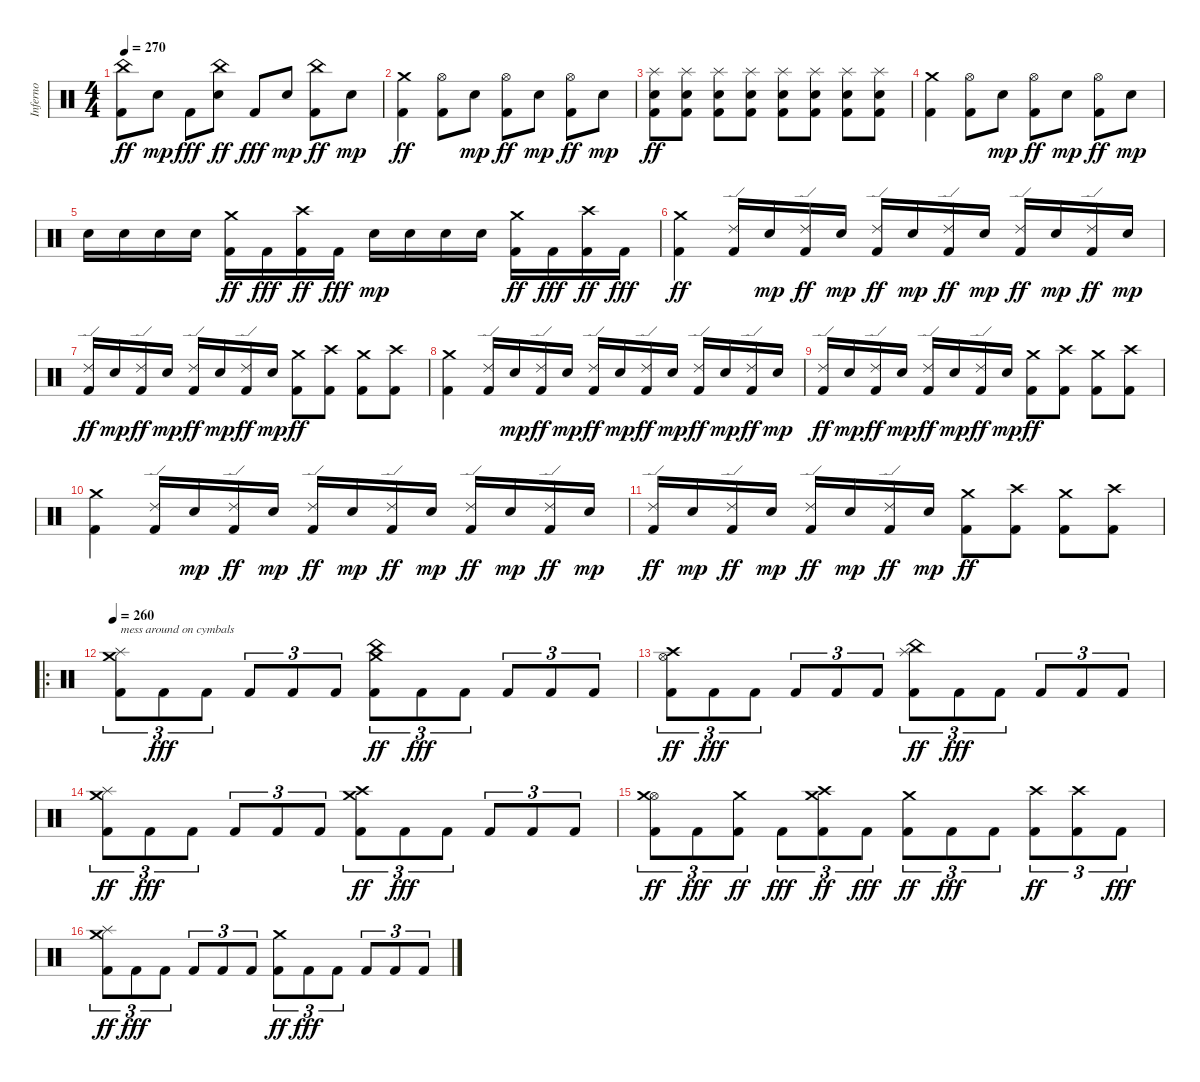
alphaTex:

\track ("Inferno" "Inferno") {instrument percussion}
\staff {score}
\articulation defaults
\ts (4 4)
\tempo 270
\clef neutral
\ks c
("Kick (hit) 2" "China (hit)").8{dy ff} "Electric Snare (hit)".8{dy mp} "Kick (hit) 2".8{dy fff} ("Electric Snare (hit)" "China (hit)").8{dy ff} "Kick (hit) 2".8{dy fff} "Electric Snare (hit)".8{dy mp} ("Kick (hit) 2" "China (hit)").8{dy ff} "Electric Snare (hit)".8{dy mp} |
("Kick (hit) 2" "Crash medium (hit)").4{dy ff} ("Kick (hit) 2" "Hi-Hat (open)").8 "Electric Snare (hit)".8{dy mp} ("Kick (hit) 2" "Hi-Hat (open)").8{dy ff} "Electric Snare (hit)".8{dy mp} ("Kick (hit) 2" "Hi-Hat (open)").8{dy ff} "Electric Snare (hit)".8{dy mp} |
("Kick (hit) 2" "Electric Snare (hit)" "Splash (hit)").8{dy ff} ("Kick (hit) 2" "Electric Snare (hit)" "Splash (hit)").8 ("Kick (hit) 2" "Electric Snare (hit)" "Splash (hit)").8 ("Kick (hit) 2" "Electric Snare (hit)" "Splash (hit)").8 ("Kick (hit) 2" "Electric Snare (hit)" "Splash (hit)").8 ("Kick (hit) 2" "Electric Snare (hit)" "Splash (hit)").8 ("Kick (hit) 2" "Electric Snare (hit)" "Splash (hit)").8 ("Kick (hit) 2" "Electric Snare (hit)" "Splash (hit)").8 |
("Kick (hit) 2" "Crash medium (hit)").4 ("Kick (hit) 2" "Hi-Hat (open)").8 "Electric Snare (hit)".8{dy mp} ("Kick (hit) 2" "Hi-Hat (open)").8{dy ff} "Electric Snare (hit)".8{dy mp} ("Kick (hit) 2" "Hi-Hat (open)").8{dy ff} "Electric Snare (hit)".8{dy mp} |
"Electric Snare (hit)".16 "Electric Snare (hit)".16 "Electric Snare (hit)".16 "Electric Snare (hit)".16 ("Kick (hit) 2" "Crash medium (hit)").16{dy ff} "Kick (hit) 2".16{dy fff} ("Kick (hit) 2" "Crash high (hit)").16{dy ff} "Kick (hit) 2".16{dy fff} "Electric Snare (hit)".16{dy mp} "Electric Snare (hit)".16 "Electric Snare (hit)".16 "Electric Snare (hit)".16 ("Kick (hit) 2" "Crash medium (hit)").16{dy ff} "Kick (hit) 2".16{dy fff} ("Kick (hit) 2" "Crash high (hit)").16{dy ff} "Kick (hit) 2".16{dy fff} |
("Kick (hit) 2" "Crash medium (hit)").4{dy ff} ("Kick (hit) 2" "Ride (edge) 2").16 "Electric Snare (hit)".16{dy mp} ("Kick (hit) 2" "Ride (edge) 2").16{dy ff} "Electric Snare (hit)".16{dy mp} ("Kick (hit) 2" "Ride (edge) 2").16{dy ff} "Electric Snare (hit)".16{dy mp} ("Kick (hit) 2" "Ride (edge) 2").16{dy ff} "Electric Snare (hit)".16{dy mp} ("Kick (hit) 2" "Ride (edge) 2").16{dy ff} "Electric Snare (hit)".16{dy mp} ("Kick (hit) 2" "Ride (edge) 2").16{dy ff} "Electric Snare (hit)".16{dy mp} |
("Kick (hit) 2" "Ride (edge) 2").16{dy ff} "Electric Snare (hit)".16{dy mp} ("Kick (hit) 2" "Ride (edge) 2").16{dy ff} "Electric Snare (hit)".16{dy mp} ("Kick (hit) 2" "Ride (edge) 2").16{dy ff} "Electric Snare (hit)".16{dy mp} ("Kick (hit) 2" "Ride (edge) 2").16{dy ff} "Electric Snare (hit)".16{dy mp} ("Kick (hit) 2" "Crash medium (hit)").8{dy ff} ("Kick (hit) 2" "Crash high (hit)").8 ("Kick (hit) 2" "Crash medium (hit)").8 ("Kick (hit) 2" "Crash high (hit)").8 |
("Kick (hit) 2" "Crash medium (hit)").4 ("Kick (hit) 2" "Ride (edge) 2").16 "Electric Snare (hit)".16{dy mp} ("Kick (hit) 2" "Ride (edge) 2").16{dy ff} "Electric Snare (hit)".16{dy mp} ("Kick (hit) 2" "Ride (edge) 2").16{dy ff} "Electric Snare (hit)".16{dy mp} ("Kick (hit) 2" "Ride (edge) 2").16{dy ff} "Electric Snare (hit)".16{dy mp} ("Kick (hit) 2" "Ride (edge) 2").16{dy ff} "Electric Snare (hit)".16{dy mp} ("Kick (hit) 2" "Ride (edge) 2").16{dy ff} "Electric Snare (hit)".16{dy mp} |
("Kick (hit) 2" "Ride (edge) 2").16{dy ff} "Electric Snare (hit)".16{dy mp} ("Kick (hit) 2" "Ride (edge) 2").16{dy ff} "Electric Snare (hit)".16{dy mp} ("Kick (hit) 2" "Ride (edge) 2").16{dy ff} "Electric Snare (hit)".16{dy mp} ("Kick (hit) 2" "Ride (edge) 2").16{dy ff} "Electric Snare (hit)".16{dy mp} ("Kick (hit) 2" "Crash medium (hit)").8{dy ff} ("Kick (hit) 2" "Crash high (hit)").8 ("Kick (hit) 2" "Crash medium (hit)").8 ("Kick (hit) 2" "Crash high (hit)").8 |
("Kick (hit) 2" "Crash medium (hit)").4 ("Kick (hit) 2" "Ride (edge) 2").16 "Electric Snare (hit)".16{dy mp} ("Kick (hit) 2" "Ride (edge) 2").16{dy ff} "Electric Snare (hit)".16{dy mp} ("Kick (hit) 2" "Ride (edge) 2").16{dy ff} "Electric Snare (hit)".16{dy mp} ("Kick (hit) 2" "Ride (edge) 2").16{dy ff} "Electric Snare (hit)".16{dy mp} ("Kick (hit) 2" "Ride (edge) 2").16{dy ff} "Electric Snare (hit)".16{dy mp} ("Kick (hit) 2" "Ride (edge) 2").16{dy ff} "Electric Snare (hit)".16{dy mp} |
("Kick (hit) 2" "Ride (edge) 2").16{dy ff} "Electric Snare (hit)".16{dy mp} ("Kick (hit) 2" "Ride (edge) 2").16{dy ff} "Electric Snare (hit)".16{dy mp} ("Kick (hit) 2" "Ride (edge) 2").16{dy ff} "Electric Snare (hit)".16{dy mp} ("Kick (hit) 2" "Ride (edge) 2").16{dy ff} "Electric Snare (hit)".16{dy mp} ("Kick (hit) 2" "Crash medium (hit)").8{dy ff} ("Kick (hit) 2" "Crash high (hit)").8 ("Kick (hit) 2" "Crash medium (hit)").8 ("Kick (hit) 2" "Crash high (hit)").8 |
\ro
\tempo 260
("Kick (hit) 2" "Crash medium (hit)" "Splash (hit)").8{tu (3 2) txt "mess around on cymbals"} "Kick (hit) 2".8{tu (3 2) dy fff} "Kick (hit) 2".8{tu (3 2)} "Kick (hit) 2".8{tu (3 2)} "Kick (hit) 2".8{tu (3 2)} "Kick (hit) 2".8{tu (3 2)} ("Kick (hit) 2" "Crash medium (hit)" "China (hit)").8{tu (3 2) dy ff} "Kick (hit) 2".8{tu (3 2) dy fff} "Kick (hit) 2".8{tu (3 2)} "Kick (hit) 2".8{tu (3 2)} "Kick (hit) 2".8{tu (3 2)} "Kick (hit) 2".8{tu (3 2)} |
("Kick (hit) 2" "Hi-Hat (open)" "Crash high (hit)").8{tu (3 2) dy ff} "Kick (hit) 2".8{tu (3 2) dy fff} "Kick (hit) 2".8{tu (3 2)} "Kick (hit) 2".8{tu (3 2)} "Kick (hit) 2".8{tu (3 2)} "Kick (hit) 2".8{tu (3 2)} ("Kick (hit) 2" "China (hit)" "Splash (hit)").8{tu (3 2) dy ff} "Kick (hit) 2".8{tu (3 2) dy fff} "Kick (hit) 2".8{tu (3 2)} "Kick (hit) 2".8{tu (3 2)} "Kick (hit) 2".8{tu (3 2)} "Kick (hit) 2".8{tu (3 2)} |
("Kick (hit) 2" "Crash medium (hit)" "Splash (hit)").8{tu (3 2) dy ff} "Kick (hit) 2".8{tu (3 2) dy fff} "Kick (hit) 2".8{tu (3 2)} "Kick (hit) 2".8{tu (3 2)} "Kick (hit) 2".8{tu (3 2)} "Kick (hit) 2".8{tu (3 2)} ("Kick (hit) 2" "Crash medium (hit)" "Crash high (hit)").8{tu (3 2) dy ff} "Kick (hit) 2".8{tu (3 2) dy fff} "Kick (hit) 2".8{tu (3 2)} "Kick (hit) 2".8{tu (3 2)} "Kick (hit) 2".8{tu (3 2)} "Kick (hit) 2".8{tu (3 2)} |
("Kick (hit) 2" "Hi-Hat (open)" "Crash medium (hit)").8{tu (3 2) dy ff} "Kick (hit) 2".8{tu (3 2) dy fff} ("Kick (hit) 2" "Crash medium (hit)").8{tu (3 2) dy ff} "Kick (hit) 2".8{tu (3 2) dy fff} ("Kick (hit) 2" "Crash high (hit)" "Crash medium (hit)").8{tu (3 2) dy ff} "Kick (hit) 2".8{tu (3 2) dy fff} ("Kick (hit) 2" "Crash medium (hit)").8{tu (3 2) dy ff} "Kick (hit) 2".8{tu (3 2) dy fff} "Kick (hit) 2".8{tu (3 2)} ("Kick (hit) 2" "Crash high (hit)").8{tu (3 2) dy ff} ("Kick (hit) 2" "Crash high (hit)").8{tu (3 2)} "Kick (hit) 2".8{tu (3 2) dy fff} |
("Kick (hit) 2" "Crash medium (hit)" "Splash (hit)").8{tu (3 2) dy ff} "Kick (hit) 2".8{tu (3 2) dy fff} "Kick (hit) 2".8{tu (3 2)} "Kick (hit) 2".8{tu (3 2)} "Kick (hit) 2".8{tu (3 2)} "Kick (hit) 2".8{tu (3 2)} ("Kick (hit) 2" "Crash medium (hit)").8{tu (3 2) dy ff} "Kick (hit) 2".8{tu (3 2) dy fff} "Kick (hit) 2".8{tu (3 2)} "Kick (hit) 2".8{tu (3 2)} "Kick (hit) 2".8{tu (3 2)} "Kick (hit) 2".8{tu (3 2)}
